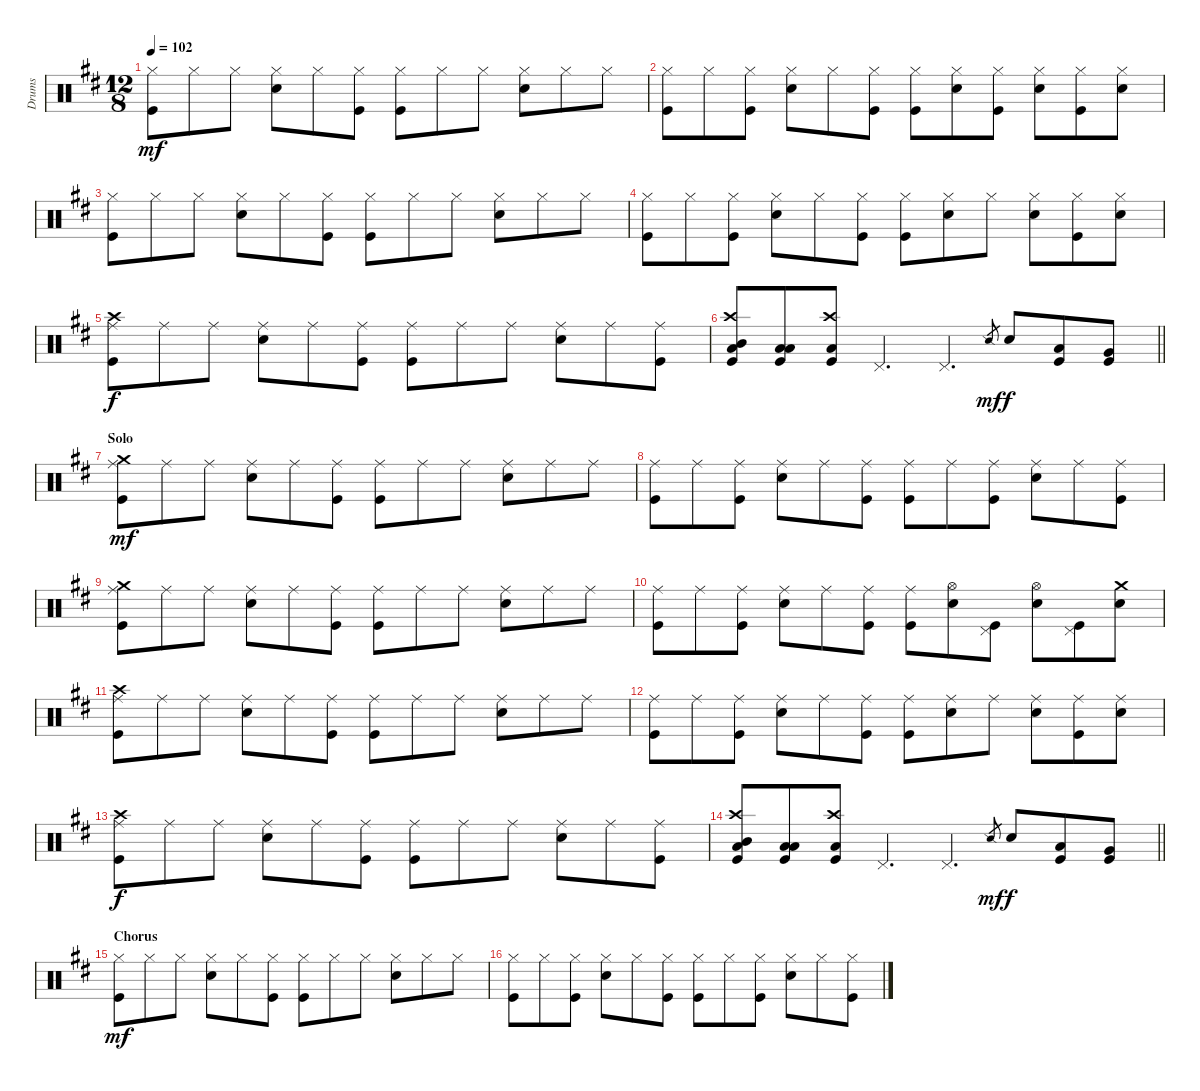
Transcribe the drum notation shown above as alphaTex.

\track ("Drums" "Drums") {instrument percussion}
\staff {score}
\articulation defaults
\ts (12 8)
\tempo 102
\clef neutral
\ks d
("Hi-Hat (closed)" "Kick (hit)").8{dy mf} "Hi-Hat (closed)".8 "Hi-Hat (closed)".8 ("Hi-Hat (closed)" "Snare (hit) 2").8 "Hi-Hat (closed)".8 ("Hi-Hat (closed)" "Kick (hit)").8 ("Hi-Hat (closed)" "Kick (hit)").8 "Hi-Hat (closed)".8 "Hi-Hat (closed)".8 ("Hi-Hat (closed)" "Snare (hit) 2").8 "Hi-Hat (closed)".8 "Hi-Hat (closed)".8 |
("Hi-Hat (closed)" "Kick (hit)").8 "Hi-Hat (closed)".8 ("Hi-Hat (closed)" "Kick (hit)").8 ("Hi-Hat (closed)" "Snare (hit) 2").8 "Hi-Hat (closed)".8 ("Hi-Hat (closed)" "Kick (hit)").8 ("Hi-Hat (closed)" "Kick (hit)").8 ("Hi-Hat (closed)" "Snare (hit) 2").8 ("Hi-Hat (closed)" "Kick (hit)").8 ("Hi-Hat (closed)" "Snare (hit) 2").8 ("Hi-Hat (closed)" "Kick (hit)").8 ("Hi-Hat (closed)" "Snare (hit) 2").8 |
("Hi-Hat (closed)" "Kick (hit)").8 "Hi-Hat (closed)".8 "Hi-Hat (closed)".8 ("Hi-Hat (closed)" "Snare (hit) 2").8 "Hi-Hat (closed)".8 ("Hi-Hat (closed)" "Kick (hit)").8 ("Hi-Hat (closed)" "Kick (hit)").8 "Hi-Hat (closed)".8 "Hi-Hat (closed)".8 ("Hi-Hat (closed)" "Snare (hit) 2").8 "Hi-Hat (closed)".8 "Hi-Hat (closed)".8 |
("Hi-Hat (closed)" "Kick (hit)").8 "Hi-Hat (closed)".8 ("Hi-Hat (closed)" "Kick (hit)").8 ("Hi-Hat (closed)" "Snare (hit) 2").8 "Hi-Hat (closed)".8 ("Hi-Hat (closed)" "Kick (hit)").8 ("Hi-Hat (closed)" "Kick (hit)").8 ("Hi-Hat (closed)" "Snare (hit) 2").8 "Hi-Hat (closed)".8 ("Hi-Hat (closed)" "Snare (hit) 2").8 ("Hi-Hat (closed)" "Kick (hit)").8 ("Hi-Hat (closed)" "Snare (hit) 2").8 |
("Ride (middle)" "Crash high (hit)" "Kick (hit)").8{dy f} "Ride (middle)".8 "Ride (middle)".8 ("Ride (middle)" "Snare (hit) 2").8 "Ride (middle)".8 ("Ride (middle)" "Kick (hit)").8 ("Ride (middle)" "Kick (hit)").8 "Ride (middle)".8 "Ride (middle)".8 ("Ride (middle)" "Snare (hit) 2").8 "Ride (middle)".8 ("Ride (middle)" "Kick (hit)").8 |
\barLineRight lightlight
("Crash high (hit)" "Mid Tom (hit)" "Low Floor Tom (hit)" "Kick (hit)").8 ("Low Tom (hit)" "Low Floor Tom (hit)" "Kick (hit)").8 ("Crash high (hit)" "Low Floor Tom (hit)" "Kick (hit)").8 "Pedal Hi-Hat (hit)".4{d} "Pedal Hi-Hat (hit)".4{d} "Snare (side stick) 2".8{gr dy mf} "Snare (hit) 2".8{dy f} ("Low Tom (hit)" "Kick (hit)").8 ("Very Low Tom (hit)" "Kick (hit)").8 |
\section ("" "Solo")
("Ride (middle)" "Crash medium (hit)" "Kick (hit)").8{dy mf} "Ride (middle)".8 "Ride (middle)".8 ("Ride (middle)" "Snare (hit) 2").8 "Ride (middle)".8 ("Ride (middle)" "Kick (hit)").8 ("Ride (middle)" "Kick (hit)").8 "Ride (middle)".8 "Ride (middle)".8 ("Ride (middle)" "Snare (hit) 2").8 "Ride (middle)".8 "Ride (middle)".8 |
("Ride (middle)" "Kick (hit)").8 "Ride (middle)".8 ("Ride (middle)" "Kick (hit)").8 ("Ride (middle)" "Snare (hit) 2").8 "Ride (middle)".8 ("Ride (middle)" "Kick (hit)").8 ("Ride (middle)" "Kick (hit)").8 "Ride (middle)".8 ("Ride (middle)" "Kick (hit)").8 ("Ride (middle)" "Snare (hit) 2").8 "Ride (middle)".8 ("Ride (middle)" "Kick (hit)").8 |
("Ride (middle)" "Crash medium (hit)" "Kick (hit)").8 "Ride (middle)".8 "Ride (middle)".8 ("Ride (middle)" "Snare (hit) 2").8 "Ride (middle)".8 ("Ride (middle)" "Kick (hit)").8 ("Ride (middle)" "Kick (hit)").8 "Ride (middle)".8 "Ride (middle)".8 ("Ride (middle)" "Snare (hit) 2").8 "Ride (middle)".8 "Ride (middle)".8 |
("Ride (middle)" "Kick (hit)").8 "Ride (middle)".8 ("Ride (middle)" "Kick (hit)").8 ("Ride (middle)" "Snare (hit) 2").8 "Ride (middle)".8 ("Ride (middle)" "Kick (hit)").8 ("Ride (middle)" "Kick (hit)").8 ("Hi-Hat (open)" "Snare (hit) 2").8 ("Pedal Hi-Hat (hit)" "Kick (hit)").8 ("Hi-Hat (open)" "Snare (hit) 2").8 ("Pedal Hi-Hat (hit)" "Kick (hit)").8 ("Crash medium (hit)" "Snare (hit) 2").8 |
("Ride (middle)" "Crash high (hit)" "Kick (hit)").8 "Ride (middle)".8 "Ride (middle)".8 ("Ride (middle)" "Snare (hit) 2").8 "Ride (middle)".8 ("Ride (middle)" "Kick (hit)").8 ("Ride (middle)" "Kick (hit)").8 "Ride (middle)".8 "Ride (middle)".8 ("Ride (middle)" "Snare (hit) 2").8 "Ride (middle)".8 "Ride (middle)".8 |
("Ride (middle)" "Kick (hit)").8 "Ride (middle)".8 ("Ride (middle)" "Kick (hit)").8 ("Ride (middle)" "Snare (hit) 2").8 "Ride (middle)".8 ("Ride (middle)" "Kick (hit)").8 ("Ride (middle)" "Kick (hit)").8 ("Ride (middle)" "Snare (hit) 2").8 "Ride (middle)".8 ("Ride (middle)" "Snare (hit) 2").8 ("Ride (middle)" "Kick (hit)").8 ("Ride (middle)" "Snare (hit) 2").8 |
("Ride (middle)" "Crash high (hit)" "Kick (hit)").8{dy f} "Ride (middle)".8 "Ride (middle)".8 ("Ride (middle)" "Snare (hit) 2").8 "Ride (middle)".8 ("Ride (middle)" "Kick (hit)").8 ("Ride (middle)" "Kick (hit)").8 "Ride (middle)".8 "Ride (middle)".8 ("Ride (middle)" "Snare (hit) 2").8 "Ride (middle)".8 ("Ride (middle)" "Kick (hit)").8 |
\barLineRight lightlight
("Crash high (hit)" "Mid Tom (hit)" "Low Floor Tom (hit)" "Kick (hit)").8 ("Low Tom (hit)" "Low Floor Tom (hit)" "Kick (hit)").8 ("Crash high (hit)" "Low Floor Tom (hit)" "Kick (hit)").8 "Pedal Hi-Hat (hit)".4{d} "Pedal Hi-Hat (hit)".4{d} "Snare (side stick) 2".8{gr dy mf} "Snare (hit) 2".8{dy f} ("Low Tom (hit)" "Kick (hit)").8 ("Very Low Tom (hit)" "Kick (hit)").8 |
\section ("" "Chorus")
("Hi-Hat (closed)" "Kick (hit)").8{dy mf} "Hi-Hat (closed)".8 "Hi-Hat (closed)".8 ("Hi-Hat (closed)" "Snare (hit) 2").8 "Hi-Hat (closed)".8 ("Hi-Hat (closed)" "Kick (hit)").8 ("Hi-Hat (closed)" "Kick (hit)").8 "Hi-Hat (closed)".8 "Hi-Hat (closed)".8 ("Hi-Hat (closed)" "Snare (hit) 2").8 "Hi-Hat (closed)".8 "Hi-Hat (closed)".8 |
("Hi-Hat (closed)" "Kick (hit)").8 "Hi-Hat (closed)".8 ("Hi-Hat (closed)" "Kick (hit)").8 ("Hi-Hat (closed)" "Snare (hit) 2").8 "Hi-Hat (closed)".8 ("Hi-Hat (closed)" "Kick (hit)").8 ("Hi-Hat (closed)" "Kick (hit)").8 "Hi-Hat (closed)".8 ("Hi-Hat (closed)" "Kick (hit)").8 ("Hi-Hat (closed)" "Snare (hit) 2").8 "Hi-Hat (closed)".8 ("Hi-Hat (closed)" "Kick (hit)").8
